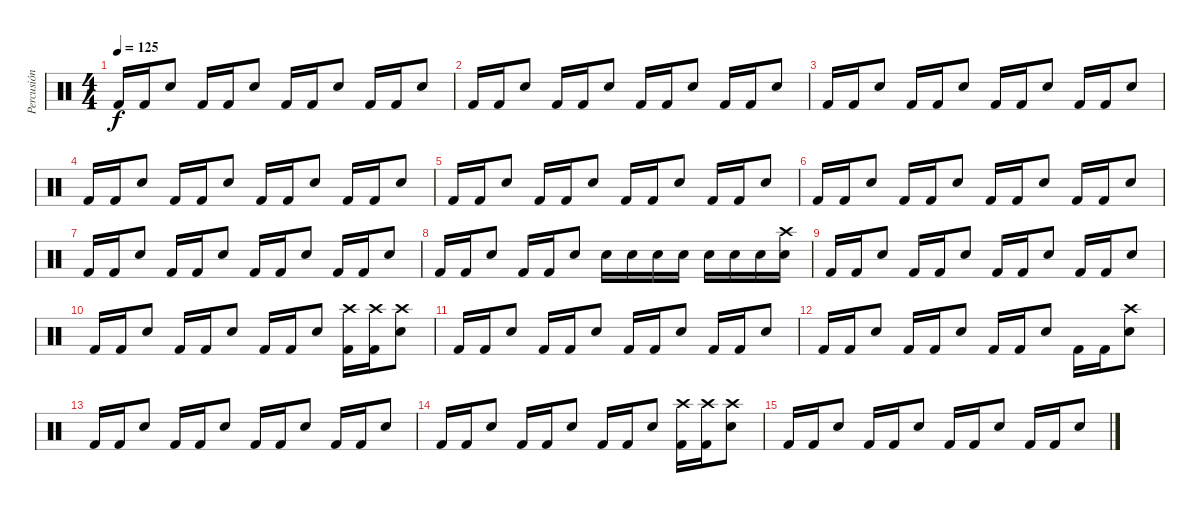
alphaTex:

\track ("Percusión" "Percusión") {instrument percussion}
\staff {score}
\articulation defaults
\ts (4 4)
\tempo 125
\clef neutral
\ks c "Kick (hit) 2".16{dy f} "Kick (hit) 2".16 "Snare (hit) 2".8 "Kick (hit) 2".16 "Kick (hit) 2".16 "Snare (hit) 2".8 "Kick (hit) 2".16 "Kick (hit) 2".16 "Snare (hit) 2".8 "Kick (hit) 2".16 "Kick (hit) 2".16 "Snare (hit) 2".8
|
"Kick (hit) 2".16 "Kick (hit) 2".16 "Snare (hit) 2".8 "Kick (hit) 2".16 "Kick (hit) 2".16 "Snare (hit) 2".8 "Kick (hit) 2".16 "Kick (hit) 2".16 "Snare (hit) 2".8 "Kick (hit) 2".16 "Kick (hit) 2".16 "Snare (hit) 2".8 |
"Kick (hit) 2".16 "Kick (hit) 2".16 "Snare (hit) 2".8 "Kick (hit) 2".16 "Kick (hit) 2".16 "Snare (hit) 2".8 "Kick (hit) 2".16 "Kick (hit) 2".16 "Snare (hit) 2".8 "Kick (hit) 2".16 "Kick (hit) 2".16 "Snare (hit) 2".8 |
"Kick (hit) 2".16 "Kick (hit) 2".16 "Snare (hit) 2".8 "Kick (hit) 2".16 "Kick (hit) 2".16 "Snare (hit) 2".8 "Kick (hit) 2".16 "Kick (hit) 2".16 "Snare (hit) 2".8 "Kick (hit) 2".16 "Kick (hit) 2".16 "Snare (hit) 2".8 |
"Kick (hit) 2".16 "Kick (hit) 2".16 "Snare (hit) 2".8 "Kick (hit) 2".16 "Kick (hit) 2".16 "Snare (hit) 2".8 "Kick (hit) 2".16 "Kick (hit) 2".16 "Snare (hit) 2".8 "Kick (hit) 2".16 "Kick (hit) 2".16 "Snare (hit) 2".8 |
"Kick (hit) 2".16 "Kick (hit) 2".16 "Snare (hit) 2".8 "Kick (hit) 2".16 "Kick (hit) 2".16 "Snare (hit) 2".8 "Kick (hit) 2".16 "Kick (hit) 2".16 "Snare (hit) 2".8 "Kick (hit) 2".16 "Kick (hit) 2".16 "Snare (hit) 2".8 |
"Kick (hit) 2".16 "Kick (hit) 2".16 "Snare (hit) 2".8 "Kick (hit) 2".16 "Kick (hit) 2".16 "Snare (hit) 2".8 "Kick (hit) 2".16 "Kick (hit) 2".16 "Snare (hit) 2".8 "Kick (hit) 2".16 "Kick (hit) 2".16 "Snare (hit) 2".8 |
"Kick (hit) 2".16 "Kick (hit) 2".16 "Snare (hit) 2".8 "Kick (hit) 2".16 "Kick (hit) 2".16 "Snare (hit) 2".8 "Snare (hit) 2".16 "Snare (hit) 2".16 "Snare (hit) 2".16 "Snare (hit) 2".16 "Snare (hit) 2".16 "Snare (hit) 2".16 "Snare (hit) 2".16 ("Snare (hit) 2" "Crash high (hit)").16 |
"Kick (hit) 2".16 "Kick (hit) 2".16 "Snare (hit) 2".8 "Kick (hit) 2".16 "Kick (hit) 2".16 "Snare (hit) 2".8 "Kick (hit) 2".16 "Kick (hit) 2".16 "Snare (hit) 2".8 "Kick (hit) 2".16 "Kick (hit) 2".16 "Snare (hit) 2".8 |
"Kick (hit) 2".16 "Kick (hit) 2".16 "Snare (hit) 2".8 "Kick (hit) 2".16 "Kick (hit) 2".16 "Snare (hit) 2".8 "Kick (hit) 2".16 "Kick (hit) 2".16 "Snare (hit) 2".8 ("Kick (hit) 2" "Crash high (hit)").16 ("Kick (hit) 2" "Crash high (hit)").16 ("Snare (hit) 2" "Crash high (hit)").8 |
"Kick (hit) 2".16 "Kick (hit) 2".16 "Snare (hit) 2".8 "Kick (hit) 2".16 "Kick (hit) 2".16 "Snare (hit) 2".8 "Kick (hit) 2".16 "Kick (hit) 2".16 "Snare (hit) 2".8 "Kick (hit) 2".16 "Kick (hit) 2".16 "Snare (hit) 2".8 |
"Kick (hit) 2".16 "Kick (hit) 2".16 "Snare (hit) 2".8 "Kick (hit) 2".16 "Kick (hit) 2".16 "Snare (hit) 2".8 "Kick (hit) 2".16 "Kick (hit) 2".16 "Snare (hit) 2".8 "Kick (hit) 2".16 "Kick (hit) 2".16 ("Snare (hit) 2" "Crash high (hit)").8 |
"Kick (hit) 2".16 "Kick (hit) 2".16 "Snare (hit) 2".8 "Kick (hit) 2".16 "Kick (hit) 2".16 "Snare (hit) 2".8 "Kick (hit) 2".16 "Kick (hit) 2".16 "Snare (hit) 2".8 "Kick (hit) 2".16 "Kick (hit) 2".16 "Snare (hit) 2".8 |
"Kick (hit) 2".16 "Kick (hit) 2".16 "Snare (hit) 2".8 "Kick (hit) 2".16 "Kick (hit) 2".16 "Snare (hit) 2".8 "Kick (hit) 2".16 "Kick (hit) 2".16 "Snare (hit) 2".8 ("Kick (hit) 2" "Crash high (hit)").16 ("Kick (hit) 2" "Crash high (hit)").16 ("Snare (hit) 2" "Crash high (hit)").8 |
"Kick (hit) 2".16 "Kick (hit) 2".16 "Snare (hit) 2".8 "Kick (hit) 2".16 "Kick (hit) 2".16 "Snare (hit) 2".8 "Kick (hit) 2".16 "Kick (hit) 2".16 "Snare (hit) 2".8 "Kick (hit) 2".16 "Kick (hit) 2".16 "Snare (hit) 2".8
